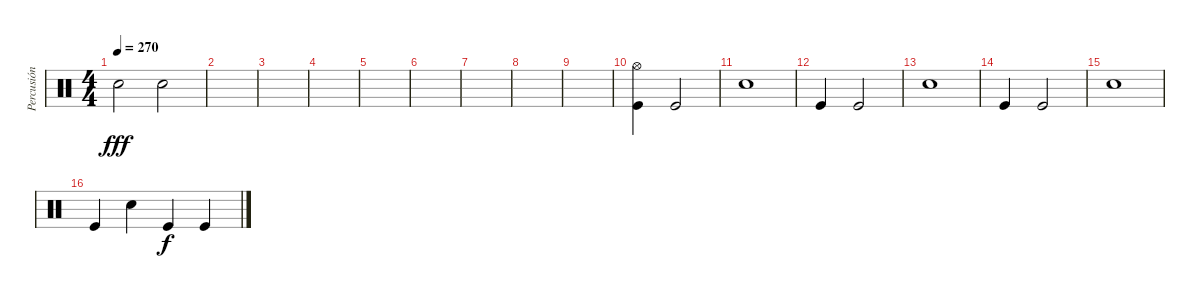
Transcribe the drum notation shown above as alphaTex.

\track ("Percusión" "Percusión") {instrument percussion}
\staff {score}
\articulation defaults
\ts (4 4)
\tempo 270
\clef neutral
\ks c "Snare (hit) 2".2{dy fff} "Snare (hit) 2".2
|
|
|
|
|
|
|
|
|
("Hi-Hat (open)" "Kick (hit)").4 "Kick (hit)".2 |
"Snare (hit) 2".1 |
"Kick (hit)".4 "Kick (hit)".2 |
"Snare (hit) 2".1 |
"Kick (hit)".4 "Kick (hit)".2 |
"Snare (hit) 2".1 |
"Kick (hit)".4 "Snare (hit) 2".4 "Kick (hit)".4{dy f} "Kick (hit)".4
